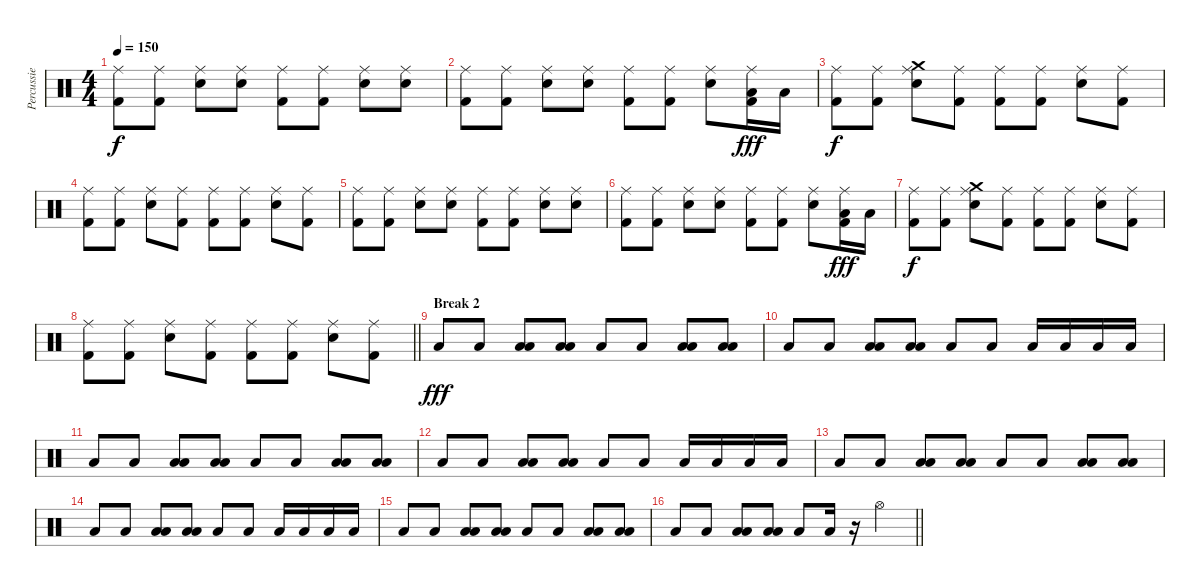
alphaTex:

\track ("Percussie" "Percussie") {instrument percussion}
\staff {score}
\articulation defaults
\ts (4 4)
\tempo 150
\clef neutral
\ks c
("Ride (middle)" "Kick (hit) 2").8{dy f} ("Ride (middle)" "Kick (hit) 2").8 ("Ride (middle)" "Snare (hit) 2").8 ("Ride (middle)" "Snare (hit) 2").8 ("Ride (middle)" "Kick (hit) 2").8 ("Ride (middle)" "Kick (hit) 2").8 ("Ride (middle)" "Snare (hit) 2").8 ("Ride (middle)" "Snare (hit) 2").8 |
("Ride (middle)" "Kick (hit) 2").8 ("Ride (middle)" "Kick (hit) 2").8 ("Ride (middle)" "Snare (hit) 2").8 ("Ride (middle)" "Snare (hit) 2").8 ("Ride (middle)" "Kick (hit) 2").8 ("Ride (middle)" "Kick (hit) 2").8 ("Ride (middle)" "Snare (hit) 2").8 ("Ride (middle)" "Low Floor Tom (hit)" "Kick (hit) 2").16{dy fff} "Low Floor Tom (hit)".16 |
("Ride (middle)" "Kick (hit) 2").8{dy f} ("Ride (middle)" "Kick (hit) 2").8 ("Crash medium (hit)" "Ride (middle)" "Snare (hit) 2").8 ("Ride (middle)" "Kick (hit) 2").8 ("Ride (middle)" "Kick (hit) 2").8 ("Ride (middle)" "Kick (hit) 2").8 ("Ride (middle)" "Snare (hit) 2").8 ("Ride (middle)" "Kick (hit) 2").8 |
("Ride (middle)" "Kick (hit) 2").8 ("Ride (middle)" "Kick (hit) 2").8 ("Ride (middle)" "Snare (hit) 2").8 ("Ride (middle)" "Kick (hit) 2").8 ("Ride (middle)" "Kick (hit) 2").8 ("Ride (middle)" "Kick (hit) 2").8 ("Ride (middle)" "Snare (hit) 2").8 ("Ride (middle)" "Kick (hit) 2").8 |
("Ride (middle)" "Kick (hit) 2").8 ("Ride (middle)" "Kick (hit) 2").8 ("Ride (middle)" "Snare (hit) 2").8 ("Ride (middle)" "Snare (hit) 2").8 ("Ride (middle)" "Kick (hit) 2").8 ("Ride (middle)" "Kick (hit) 2").8 ("Ride (middle)" "Snare (hit) 2").8 ("Ride (middle)" "Snare (hit) 2").8 |
("Ride (middle)" "Kick (hit) 2").8 ("Ride (middle)" "Kick (hit) 2").8 ("Ride (middle)" "Snare (hit) 2").8 ("Ride (middle)" "Snare (hit) 2").8 ("Ride (middle)" "Kick (hit) 2").8 ("Ride (middle)" "Kick (hit) 2").8 ("Ride (middle)" "Snare (hit) 2").8 ("Ride (middle)" "Low Floor Tom (hit)" "Kick (hit) 2").16{dy fff} "Low Floor Tom (hit)".16 |
("Ride (middle)" "Kick (hit) 2").8{dy f} ("Ride (middle)" "Kick (hit) 2").8 ("Crash medium (hit)" "Ride (middle)" "Snare (hit) 2").8 ("Ride (middle)" "Kick (hit) 2").8 ("Ride (middle)" "Kick (hit) 2").8 ("Ride (middle)" "Kick (hit) 2").8 ("Ride (middle)" "Snare (hit) 2").8 ("Ride (middle)" "Kick (hit) 2").8 |
\barLineRight lightlight
("Ride (middle)" "Kick (hit) 2").8 ("Ride (middle)" "Kick (hit) 2").8 ("Ride (middle)" "Snare (hit) 2").8 ("Ride (middle)" "Kick (hit) 2").8 ("Ride (middle)" "Kick (hit) 2").8 ("Ride (middle)" "Kick (hit) 2").8 ("Ride (middle)" "Snare (hit) 2").8 ("Ride (middle)" "Kick (hit) 2").8 |
\section ("" "Break 2")
"Low Floor Tom (hit)".8{dy fff} "Low Floor Tom (hit)".8 ("Low Tom (hit)" "Low Floor Tom (hit)").8 ("Low Tom (hit)" "Low Floor Tom (hit)").8 "Low Floor Tom (hit)".8 "Low Floor Tom (hit)".8 ("Low Tom (hit)" "Low Floor Tom (hit)").8 ("Low Tom (hit)" "Low Floor Tom (hit)").8 |
"Low Floor Tom (hit)".8 "Low Floor Tom (hit)".8 ("Low Tom (hit)" "Low Floor Tom (hit)").8 ("Low Tom (hit)" "Low Floor Tom (hit)").8 "Low Floor Tom (hit)".8 "Low Floor Tom (hit)".8 "Low Floor Tom (hit)".16 "Low Floor Tom (hit)".16 "Low Floor Tom (hit)".16 "Low Floor Tom (hit)".16 |
"Low Floor Tom (hit)".8 "Low Floor Tom (hit)".8 ("Low Tom (hit)" "Low Floor Tom (hit)").8 ("Low Tom (hit)" "Low Floor Tom (hit)").8 "Low Floor Tom (hit)".8 "Low Floor Tom (hit)".8 ("Low Tom (hit)" "Low Floor Tom (hit)").8 ("Low Tom (hit)" "Low Floor Tom (hit)").8 |
"Low Floor Tom (hit)".8 "Low Floor Tom (hit)".8 ("Low Tom (hit)" "Low Floor Tom (hit)").8 ("Low Tom (hit)" "Low Floor Tom (hit)").8 "Low Floor Tom (hit)".8 "Low Floor Tom (hit)".8 "Low Floor Tom (hit)".16 "Low Floor Tom (hit)".16 "Low Floor Tom (hit)".16 "Low Floor Tom (hit)".16 |
"Low Floor Tom (hit)".8 "Low Floor Tom (hit)".8 ("Low Tom (hit)" "Low Floor Tom (hit)").8 ("Low Tom (hit)" "Low Floor Tom (hit)").8 "Low Floor Tom (hit)".8 "Low Floor Tom (hit)".8 ("Low Tom (hit)" "Low Floor Tom (hit)").8 ("Low Tom (hit)" "Low Floor Tom (hit)").8 |
"Low Floor Tom (hit)".8 "Low Floor Tom (hit)".8 ("Low Tom (hit)" "Low Floor Tom (hit)").8 ("Low Tom (hit)" "Low Floor Tom (hit)").8 "Low Floor Tom (hit)".8 "Low Floor Tom (hit)".8 "Low Floor Tom (hit)".16 "Low Floor Tom (hit)".16 "Low Floor Tom (hit)".16 "Low Floor Tom (hit)".16 |
"Low Floor Tom (hit)".8 "Low Floor Tom (hit)".8 ("Low Tom (hit)" "Low Floor Tom (hit)").8 ("Low Tom (hit)" "Low Floor Tom (hit)").8 "Low Floor Tom (hit)".8 "Low Floor Tom (hit)".8 ("Low Tom (hit)" "Low Floor Tom (hit)").8 ("Low Tom (hit)" "Low Floor Tom (hit)").8 |
\barLineRight lightlight "Low Floor Tom (hit)".8 "Low Floor Tom (hit)".8
("Low Tom (hit)" "Low Floor Tom (hit)").8 ("Low Tom (hit)" "Low Floor Tom (hit)").8 "Low Floor Tom (hit)".8 "Low Floor Tom (hit)".16 r.16{volume 0} "Hi-Hat (open)".4{volume 11}
